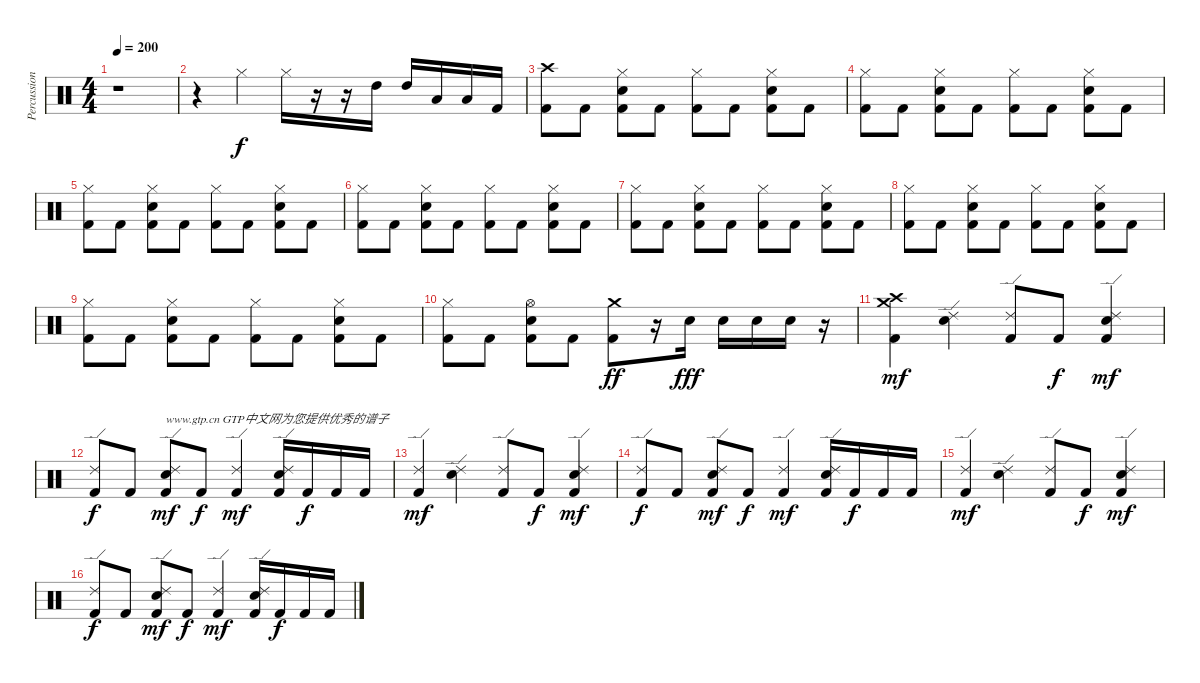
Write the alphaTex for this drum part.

\track ("Percussions 1" "Percussion") {instrument percussion}
\staff {score}
\articulation defaults
\ts (4 4)
\tempo 200
\clef neutral
\ks c
r.1{dy fff} |
r.4 "Hi-Hat (closed)".4{dy f} "Hi-Hat (closed)".16 r.16 r.16 "High Tom (hit)".16 "High Tom (hit)".16 "Low Tom (hit)".16 "Low Tom (hit)".16 "Kick (hit) 2".16 |
("Crash high (hit)" "Kick (hit) 2").8 "Kick (hit) 2".8 ("Hi-Hat (closed)" "Snare (hit) 2" "Kick (hit) 2").8 "Kick (hit) 2".8 ("Hi-Hat (closed)" "Kick (hit) 2").8 "Kick (hit) 2".8 ("Hi-Hat (closed)" "Snare (hit) 2" "Kick (hit) 2").8 "Kick (hit) 2".8 |
("Hi-Hat (closed)" "Kick (hit) 2").8 "Kick (hit) 2".8 ("Hi-Hat (closed)" "Snare (hit) 2" "Kick (hit) 2").8 "Kick (hit) 2".8 ("Hi-Hat (closed)" "Kick (hit) 2").8 "Kick (hit) 2".8 ("Hi-Hat (closed)" "Snare (hit) 2" "Kick (hit) 2").8 "Kick (hit) 2".8 |
("Hi-Hat (closed)" "Kick (hit) 2").8 "Kick (hit) 2".8 ("Hi-Hat (closed)" "Snare (hit) 2" "Kick (hit) 2").8 "Kick (hit) 2".8 ("Hi-Hat (closed)" "Kick (hit) 2").8 "Kick (hit) 2".8 ("Hi-Hat (closed)" "Snare (hit) 2" "Kick (hit) 2").8 "Kick (hit) 2".8 |
("Hi-Hat (closed)" "Kick (hit) 2").8 "Kick (hit) 2".8 ("Hi-Hat (closed)" "Snare (hit) 2" "Kick (hit) 2").8 "Kick (hit) 2".8 ("Hi-Hat (closed)" "Kick (hit) 2").8 "Kick (hit) 2".8 ("Hi-Hat (closed)" "Snare (hit) 2" "Kick (hit) 2").8 "Kick (hit) 2".8 |
("Hi-Hat (closed)" "Kick (hit) 2").8 "Kick (hit) 2".8 ("Hi-Hat (closed)" "Snare (hit) 2" "Kick (hit) 2").8 "Kick (hit) 2".8 ("Hi-Hat (closed)" "Kick (hit) 2").8 "Kick (hit) 2".8 ("Hi-Hat (closed)" "Snare (hit) 2" "Kick (hit) 2").8 "Kick (hit) 2".8 |
("Hi-Hat (closed)" "Kick (hit) 2").8 "Kick (hit) 2".8 ("Hi-Hat (closed)" "Snare (hit) 2" "Kick (hit) 2").8 "Kick (hit) 2".8 ("Hi-Hat (closed)" "Kick (hit) 2").8 "Kick (hit) 2".8 ("Hi-Hat (closed)" "Snare (hit) 2" "Kick (hit) 2").8 "Kick (hit) 2".8 |
("Hi-Hat (closed)" "Kick (hit) 2").8 "Kick (hit) 2".8 ("Hi-Hat (closed)" "Snare (hit) 2" "Kick (hit) 2").8 "Kick (hit) 2".8 ("Hi-Hat (closed)" "Kick (hit) 2").8 "Kick (hit) 2".8 ("Hi-Hat (closed)" "Snare (hit) 2" "Kick (hit) 2").8 "Kick (hit) 2".8 |
("Hi-Hat (closed)" "Kick (hit) 2").8 "Kick (hit) 2".8 ("Hi-Hat (open)" "Snare (hit) 2" "Kick (hit) 2").8 "Kick (hit) 2".8 ("Crash medium (hit)" "Kick (hit) 2").8{dy ff} r.16 "Snare (hit) 2".16{dy fff} "Snare (hit) 2".16 "Snare (hit) 2".16 "Snare (hit) 2".16 r.16 |
("Crash high (hit)" "Crash medium (hit)" "Kick (hit) 2").4{dy mf} ("Ride (edge) 2" "Snare (hit) 2").4 ("Ride (edge) 2" "Kick (hit) 2").8 "Kick (hit) 2".8{dy f} ("Ride (edge) 2" "Snare (hit) 2" "Kick (hit) 2").4{dy mf} |
("Ride (edge) 2" "Kick (hit) 2").8{dy f} "Kick (hit) 2".8 ("Ride (edge) 2" "Snare (hit) 2" "Kick (hit) 2").8{txt "www.gtp.cn GTP中文网为您提供优秀的谱子" dy mf} "Kick (hit) 2".8{dy f} ("Ride (edge) 2" "Kick (hit) 2").4{dy mf} ("Ride (edge) 2" "Snare (hit) 2" "Kick (hit) 2").16 "Kick (hit) 2".16{dy f} "Kick (hit) 2".16 "Kick (hit) 2".16 |
("Ride (edge) 2" "Kick (hit) 2").4{dy mf} ("Ride (edge) 2" "Snare (hit) 2").4 ("Ride (edge) 2" "Kick (hit) 2").8 "Kick (hit) 2".8{dy f} ("Ride (edge) 2" "Snare (hit) 2" "Kick (hit) 2").4{dy mf} |
("Ride (edge) 2" "Kick (hit) 2").8{dy f} "Kick (hit) 2".8 ("Ride (edge) 2" "Snare (hit) 2" "Kick (hit) 2").8{dy mf} "Kick (hit) 2".8{dy f} ("Ride (edge) 2" "Kick (hit) 2").4{dy mf} ("Ride (edge) 2" "Snare (hit) 2" "Kick (hit) 2").16 "Kick (hit) 2".16{dy f} "Kick (hit) 2".16 "Kick (hit) 2".16 |
("Ride (edge) 2" "Kick (hit) 2").4{dy mf} ("Ride (edge) 2" "Snare (hit) 2").4 ("Ride (edge) 2" "Kick (hit) 2").8 "Kick (hit) 2".8{dy f} ("Ride (edge) 2" "Snare (hit) 2" "Kick (hit) 2").4{dy mf} |
("Ride (edge) 2" "Kick (hit) 2").8{dy f} "Kick (hit) 2".8 ("Ride (edge) 2" "Snare (hit) 2" "Kick (hit) 2").8{dy mf} "Kick (hit) 2".8{dy f} ("Ride (edge) 2" "Kick (hit) 2").4{dy mf} ("Ride (edge) 2" "Snare (hit) 2" "Kick (hit) 2").16 "Kick (hit) 2".16{dy f} "Kick (hit) 2".16 "Kick (hit) 2".16
